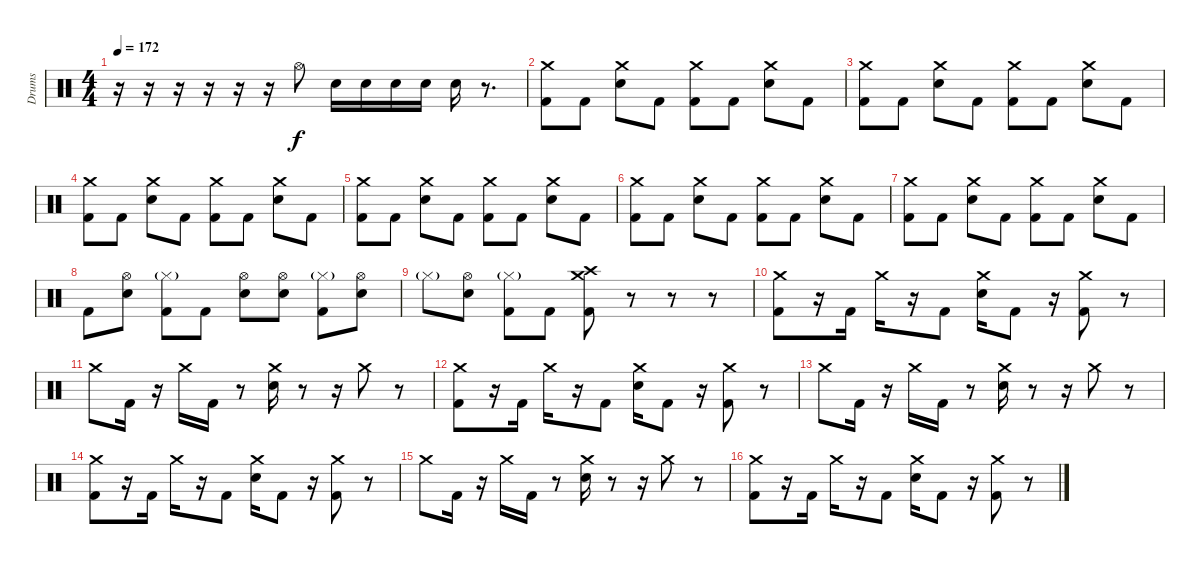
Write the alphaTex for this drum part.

\track ("Drums" "Drums") {instrument percussion}
\staff {score}
\articulation defaults
\ts (4 4)
\tempo 172
\clef neutral
\ks c
r.16{dy f} r.16 r.16 r.16 r.16 r.16 "Hi-Hat (open)".8 "Electric Snare (hit)".16 "Electric Snare (hit)".16 "Electric Snare (hit)".16 "Electric Snare (hit)".16 "Electric Snare (hit)".16 r.8{d} |
("Crash medium (hit)" "Kick (hit) 2").8 "Kick (hit) 2".8 ("Crash medium (hit)" "Electric Snare (hit)").8 "Kick (hit) 2".8 ("Crash medium (hit)" "Kick (hit) 2").8 "Kick (hit) 2".8 ("Crash medium (hit)" "Electric Snare (hit)").8 "Kick (hit) 2".8 |
("Crash medium (hit)" "Kick (hit) 2").8 "Kick (hit) 2".8 ("Crash medium (hit)" "Electric Snare (hit)").8 "Kick (hit) 2".8 ("Crash medium (hit)" "Kick (hit) 2").8 "Kick (hit) 2".8 ("Crash medium (hit)" "Electric Snare (hit)").8 "Kick (hit) 2".8 |
("Crash medium (hit)" "Kick (hit) 2").8 "Kick (hit) 2".8 ("Crash medium (hit)" "Electric Snare (hit)").8 "Kick (hit) 2".8 ("Crash medium (hit)" "Kick (hit) 2").8 "Kick (hit) 2".8 ("Crash medium (hit)" "Electric Snare (hit)").8 "Kick (hit) 2".8 |
("Crash medium (hit)" "Kick (hit) 2").8 "Kick (hit) 2".8 ("Crash medium (hit)" "Electric Snare (hit)").8 "Kick (hit) 2".8 ("Crash medium (hit)" "Kick (hit) 2").8 "Kick (hit) 2".8 ("Crash medium (hit)" "Electric Snare (hit)").8 "Kick (hit) 2".8 |
("Crash medium (hit)" "Kick (hit) 2").8 "Kick (hit) 2".8 ("Crash medium (hit)" "Electric Snare (hit)").8 "Kick (hit) 2".8 ("Crash medium (hit)" "Kick (hit) 2").8 "Kick (hit) 2".8 ("Crash medium (hit)" "Electric Snare (hit)").8 "Kick (hit) 2".8 |
("Crash medium (hit)" "Kick (hit) 2").8 "Kick (hit) 2".8 ("Crash medium (hit)" "Electric Snare (hit)").8 "Kick (hit) 2".8 ("Crash medium (hit)" "Kick (hit) 2").8 "Kick (hit) 2".8 ("Crash medium (hit)" "Electric Snare (hit)").8 "Kick (hit) 2".8 |
"Kick (hit) 2".8 ("Hi-Hat (open)" "Electric Snare (hit)").8 ("Hi-Hat (closed)"{g} "Kick (hit) 2").8 "Kick (hit) 2".8 ("Hi-Hat (open)" "Electric Snare (hit)").8 ("Hi-Hat (open)" "Electric Snare (hit)").8 ("Hi-Hat (closed)"{g} "Kick (hit) 2").8 ("Hi-Hat (open)" "Electric Snare (hit)").8 |
"Hi-Hat (closed)"{g}.8 ("Hi-Hat (open)" "Electric Snare (hit)").8 ("Hi-Hat (closed)"{g} "Kick (hit) 2").8 "Kick (hit) 2".8 ("Crash medium (hit)" "Crash high (hit)" "Kick (hit) 2").8 r.8 r.8 r.8 |
("Crash medium (hit)" "Kick (hit) 2").8 r.16 "Kick (hit) 2".16 "Crash medium (hit)".16 r.16 "Kick (hit) 2".8 ("Crash medium (hit)" "Electric Snare (hit)").16 "Kick (hit) 2".8 r.16 ("Crash medium (hit)" "Kick (hit) 2").8 r.8 |
"Crash medium (hit)".8 "Kick (hit) 2".16 r.16 "Crash medium (hit)".16 "Kick (hit) 2".16 r.8 ("Crash medium (hit)" "Electric Snare (hit)").16 r.8 r.16 "Crash medium (hit)".8 r.8 |
("Crash medium (hit)" "Kick (hit) 2").8 r.16 "Kick (hit) 2".16 "Crash medium (hit)".16 r.16 "Kick (hit) 2".8 ("Crash medium (hit)" "Electric Snare (hit)").16 "Kick (hit) 2".8 r.16 ("Crash medium (hit)" "Kick (hit) 2").8 r.8 |
"Crash medium (hit)".8 "Kick (hit) 2".16 r.16 "Crash medium (hit)".16 "Kick (hit) 2".16 r.8 ("Crash medium (hit)" "Electric Snare (hit)").16 r.8 r.16 "Crash medium (hit)".8 r.8 |
("Crash medium (hit)" "Kick (hit) 2").8 r.16 "Kick (hit) 2".16 "Crash medium (hit)".16 r.16 "Kick (hit) 2".8 ("Crash medium (hit)" "Electric Snare (hit)").16 "Kick (hit) 2".8 r.16 ("Crash medium (hit)" "Kick (hit) 2").8 r.8 |
"Crash medium (hit)".8 "Kick (hit) 2".16 r.16 "Crash medium (hit)".16 "Kick (hit) 2".16 r.8 ("Crash medium (hit)" "Electric Snare (hit)").16 r.8 r.16 "Crash medium (hit)".8 r.8 |
("Crash medium (hit)" "Kick (hit) 2").8 r.16 "Kick (hit) 2".16 "Crash medium (hit)".16 r.16 "Kick (hit) 2".8 ("Crash medium (hit)" "Electric Snare (hit)").16 "Kick (hit) 2".8 r.16 ("Crash medium (hit)" "Kick (hit) 2").8 r.8
